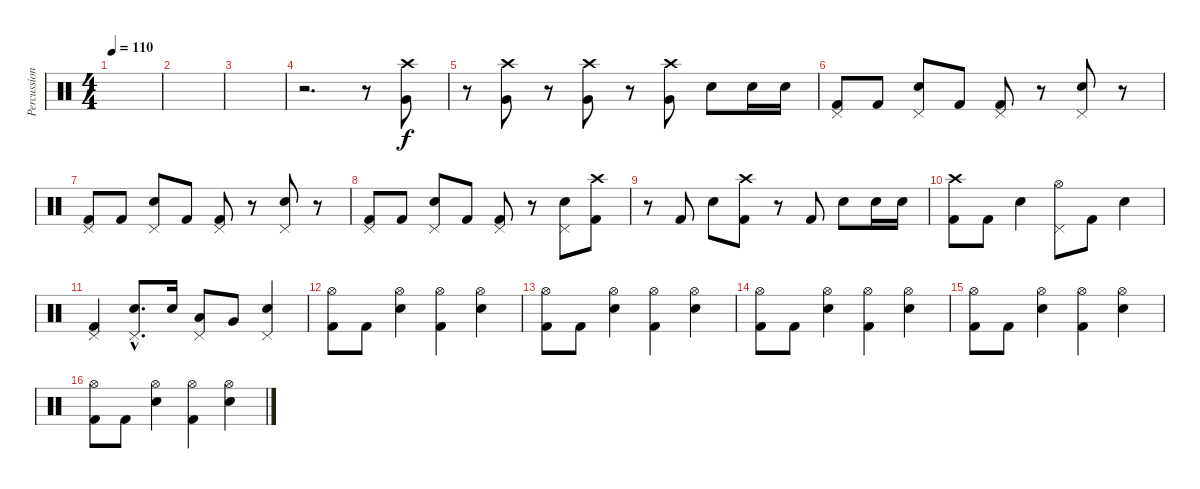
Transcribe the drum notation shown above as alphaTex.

\track ("Percussion" "Percussion") {instrument percussion}
\staff {score}
\articulation defaults
\ts (4 4)
\tempo 110
\clef neutral
\ks c
|
|
|
r.2{d} r.8 ("Crash high (hit)" "Very Low Tom (hit)").8 |
r.8 ("Crash high (hit)" "Very Low Tom (hit)").8 r.8 ("Crash high (hit)" "Very Low Tom (hit)").8 r.8 ("Crash high (hit)" "Very Low Tom (hit)").8 "Electric Snare (hit)".8 "Electric Snare (hit)".16 "Electric Snare (hit)".16 |
("Pedal Hi-Hat (hit)" "Kick (hit) 2").8 "Kick (hit) 2".8 ("Electric Snare (hit)" "Pedal Hi-Hat (hit)").8 "Kick (hit) 2".8 ("Pedal Hi-Hat (hit)" "Kick (hit) 2").8 r.8 ("Electric Snare (hit)" "Pedal Hi-Hat (hit)").8 r.8 |
("Pedal Hi-Hat (hit)" "Kick (hit) 2").8 "Kick (hit) 2".8 ("Electric Snare (hit)" "Pedal Hi-Hat (hit)").8 "Kick (hit) 2".8 ("Pedal Hi-Hat (hit)" "Kick (hit) 2").8 r.8 ("Electric Snare (hit)" "Pedal Hi-Hat (hit)").8 r.8 |
("Pedal Hi-Hat (hit)" "Kick (hit) 2").8 "Kick (hit) 2".8 ("Electric Snare (hit)" "Pedal Hi-Hat (hit)").8 "Kick (hit) 2".8 ("Pedal Hi-Hat (hit)" "Kick (hit) 2").8 r.8 ("Electric Snare (hit)" "Pedal Hi-Hat (hit)").8 ("Kick (hit) 2" "Crash high (hit)").8 |
r.8 "Kick (hit) 2".8 "Electric Snare (hit)".8 ("Kick (hit) 2" "Crash high (hit)").8 r.8 "Kick (hit) 2".8 "Electric Snare (hit)".8 "Electric Snare (hit)".16 "Electric Snare (hit)".16 |
("Crash high (hit)" "Kick (hit) 2").8 "Kick (hit) 2".8 "Electric Snare (hit)".4 ("Hi-Hat (open)" "Pedal Hi-Hat (hit)").8 "Kick (hit) 2".8 "Electric Snare (hit)".4 |
("Pedal Hi-Hat (hit)" "Kick (hit) 2").4 ("Electric Snare (hit)"{hac} "Pedal Hi-Hat (hit)"{hac}).8{d} "Electric Snare (hit)".16 ("Pedal Hi-Hat (hit)" "Low Floor Tom (hit)").8 "Very Low Tom (hit)".8 ("Electric Snare (hit)" "Pedal Hi-Hat (hit)").4 |
("Hi-Hat (open)" "Kick (hit) 2").8 "Kick (hit) 2".8 ("Electric Snare (hit)" "Hi-Hat (open)").4 ("Hi-Hat (open)" "Kick (hit) 2").4 ("Electric Snare (hit)" "Hi-Hat (open)").4 |
("Hi-Hat (open)" "Kick (hit) 2").8 "Kick (hit) 2".8 ("Electric Snare (hit)" "Hi-Hat (open)").4 ("Hi-Hat (open)" "Kick (hit) 2").4 ("Electric Snare (hit)" "Hi-Hat (open)").4 |
("Hi-Hat (open)" "Kick (hit) 2").8 "Kick (hit) 2".8 ("Electric Snare (hit)" "Hi-Hat (open)").4 ("Hi-Hat (open)" "Kick (hit) 2").4 ("Electric Snare (hit)" "Hi-Hat (open)").4 |
("Hi-Hat (open)" "Kick (hit) 2").8 "Kick (hit) 2".8 ("Electric Snare (hit)" "Hi-Hat (open)").4 ("Hi-Hat (open)" "Kick (hit) 2").4 ("Electric Snare (hit)" "Hi-Hat (open)").4 |
("Hi-Hat (open)" "Kick (hit) 2").8 "Kick (hit) 2".8 ("Electric Snare (hit)" "Hi-Hat (open)").4 ("Hi-Hat (open)" "Kick (hit) 2").4 ("Electric Snare (hit)" "Hi-Hat (open)").4
